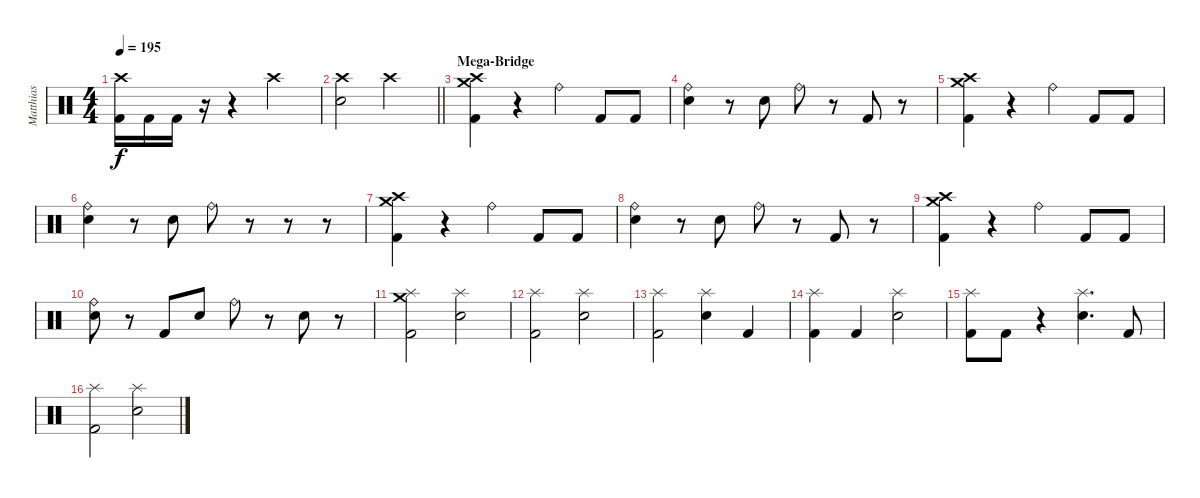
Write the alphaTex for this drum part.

\track ("Matthias" "Matthias") {instrument percussion}
\staff {score}
\articulation defaults
\ts (4 4)
\tempo 195
\clef neutral
\ks c
("Crash high (hit)" "Kick (hit) 2").16{dy f} "Kick (hit) 2".16 "Kick (hit) 2".16 r.16 r.4 "Crash high (hit)".2 |
\barLineRight lightlight
("Crash high (hit)" "Electric Snare (hit)").2 "Crash high (hit)".2 |
\section ("" "Mega-Bridge")
("Crash medium (hit)" "Crash high (hit)" "Kick (hit) 2").4 r.4 "Ride (bell)".4 "Kick (hit) 2".8 "Kick (hit) 2".8 |
("Ride (bell)" "Electric Snare (hit)").4 r.8 "Electric Snare (hit)".8 "Ride (bell)".8 r.8 "Kick (hit) 2".8 r.8 |
("Crash medium (hit)" "Crash high (hit)" "Kick (hit) 2").4 r.4 "Ride (bell)".4 "Kick (hit) 2".8 "Kick (hit) 2".8 |
("Ride (bell)" "Electric Snare (hit)").4 r.8 "Electric Snare (hit)".8 "Ride (bell)".8 r.8 r.8 r.8 |
("Crash medium (hit)" "Crash high (hit)" "Kick (hit) 2").4 r.4 "Ride (bell)".4 "Kick (hit) 2".8 "Kick (hit) 2".8 |
("Ride (bell)" "Electric Snare (hit)").4 r.8 "Electric Snare (hit)".8 "Ride (bell)".8 r.8 "Kick (hit) 2".8 r.8 |
("Crash medium (hit)" "Crash high (hit)" "Kick (hit) 2").4 r.4 "Ride (bell)".4 "Kick (hit) 2".8 "Kick (hit) 2".8 |
("Ride (bell)" "Electric Snare (hit)").8 r.8 "Kick (hit) 2".8 "Electric Snare (hit)".8 "Ride (bell)".8 r.8 "Electric Snare (hit)".8 r.8 |
("Crash medium (hit)" "Splash (hit)" "Kick (hit) 2").2 ("Splash (hit)" "Electric Snare (hit)").2 |
("Splash (hit)" "Kick (hit) 2").2 ("Splash (hit)" "Electric Snare (hit)").2 |
("Splash (hit)" "Kick (hit) 2").2 ("Splash (hit)" "Electric Snare (hit)").4 "Kick (hit) 2".4 |
("Splash (hit)" "Kick (hit) 2").4 "Kick (hit) 2".4 ("Splash (hit)" "Electric Snare (hit)").2 |
("Splash (hit)" "Kick (hit) 2").8 "Kick (hit) 2".8 r.4 ("Splash (hit)" "Electric Snare (hit)").4{d} "Kick (hit) 2".8 |
("Splash (hit)" "Kick (hit) 2").2 ("Splash (hit)" "Electric Snare (hit)").2
